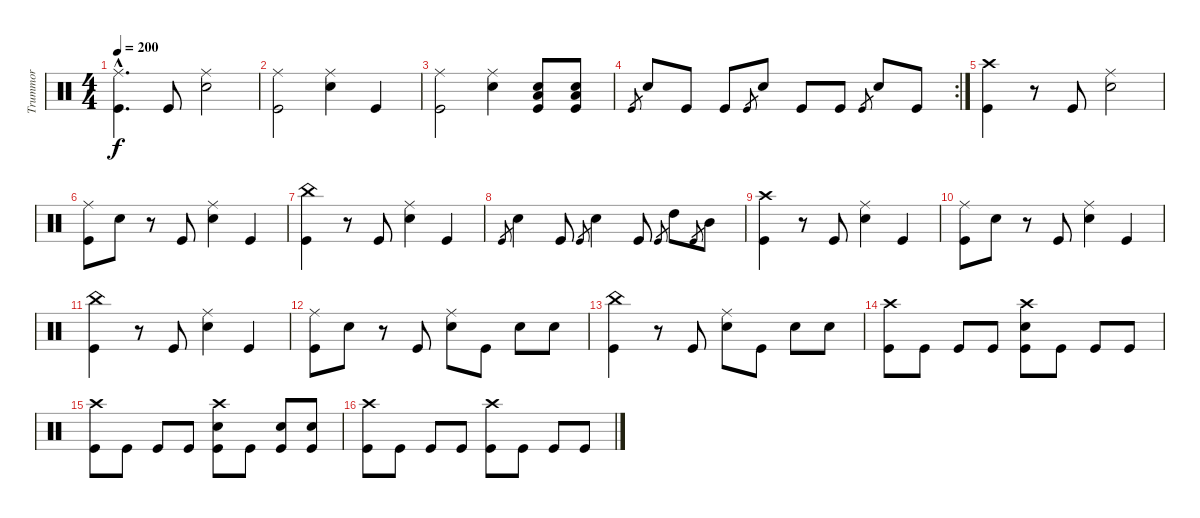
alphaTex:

\track ("Trummor" "Trummor") {instrument percussion}
\staff {score}
\articulation defaults
\ts (4 4)
\tempo 200
\clef neutral
\ks c
("Ride (middle)"{hac} "Kick (hit)"{hac}).4{d dy f} "Kick (hit)".8 ("Ride (middle)" "Electric Snare (hit)").2 |
("Ride (middle)" "Kick (hit)").2 ("Ride (middle)" "Electric Snare (hit)").4 "Kick (hit)".4 |
("Ride (middle)" "Kick (hit)").2 ("Ride (middle)" "Electric Snare (hit)").4 ("Electric Snare (hit)" "Low Floor Tom (hit)" "Kick (hit)").8 ("Electric Snare (hit)" "Low Floor Tom (hit)" "Kick (hit)").8 |
\rc 2 "Kick (hit)"{sl}.8{gr} "Electric Snare (hit)".8 "Kick (hit)".8 "Kick (hit)".8 "Kick (hit)"{sl}.8{gr} "Electric Snare (hit)".8 "Kick (hit)".8 "Kick (hit)".8 "Kick (hit)"{sl}.8{gr} "Electric Snare (hit)".8 "Kick (hit)".8
|
("Crash high (hit)" "Kick (hit)").4 r.8 "Kick (hit)".8 ("Ride (middle)" "Electric Snare (hit)").2 |
("Ride (middle)" "Kick (hit)").8 "Electric Snare (hit)".8 r.8 "Kick (hit)".8 ("Ride (middle)" "Electric Snare (hit)").4 "Kick (hit)".4 |
("China (hit)" "Kick (hit)").4 r.8 "Kick (hit)".8 ("Ride (middle)" "Electric Snare (hit)").4 "Kick (hit)".4 |
"Kick (hit)"{sl}.8{gr} "Electric Snare (hit)".4 "Kick (hit)".8 "Kick (hit)"{sl}.8{gr} "Electric Snare (hit)".4 "Kick (hit)".8 "Kick (hit)"{sl}.8{gr} "High Tom (hit)".8 "Kick (hit)"{sl}.8{gr} "Mid Tom (hit)".8 |
("Crash high (hit)" "Kick (hit)").4 r.8 "Kick (hit)".8 ("Ride (middle)" "Electric Snare (hit)").4 "Kick (hit)".4 |
("Ride (middle)" "Kick (hit)").8 "Electric Snare (hit)".8 r.8 "Kick (hit)".8 ("Ride (middle)" "Electric Snare (hit)").4 "Kick (hit)".4 |
("China (hit)" "Kick (hit)").4 r.8 "Kick (hit)".8 ("Ride (middle)" "Electric Snare (hit)").4 "Kick (hit)".4 |
("Ride (middle)" "Kick (hit)").8 "Electric Snare (hit)".8 r.8 "Kick (hit)".8 ("Ride (middle)" "Electric Snare (hit)").8 "Kick (hit)".8 "Electric Snare (hit)".8 "Electric Snare (hit)".8 |
("China (hit)" "Kick (hit)").4 r.8 "Kick (hit)".8 ("Ride (middle)" "Electric Snare (hit)").8 "Kick (hit)".8 "Electric Snare (hit)".8 "Electric Snare (hit)".8 |
("Crash high (hit)" "Kick (hit)").8 "Kick (hit)".8 "Kick (hit)".8 "Kick (hit)".8 ("Crash high (hit)" "Electric Snare (hit)" "Kick (hit)").8 "Kick (hit)".8 "Kick (hit)".8 "Kick (hit)".8 |
("Crash high (hit)" "Kick (hit)").8 "Kick (hit)".8 "Kick (hit)".8 "Kick (hit)".8 ("Crash high (hit)" "Electric Snare (hit)" "Kick (hit)").8 "Kick (hit)".8 ("Electric Snare (hit)" "Kick (hit)").8 ("Electric Snare (hit)" "Kick (hit)").8 |
("Crash high (hit)" "Kick (hit)").8 "Kick (hit)".8 "Kick (hit)".8 "Kick (hit)".8 ("Crash high (hit)" "Kick (hit)").8 "Kick (hit)".8 "Kick (hit)".8 "Kick (hit)".8
